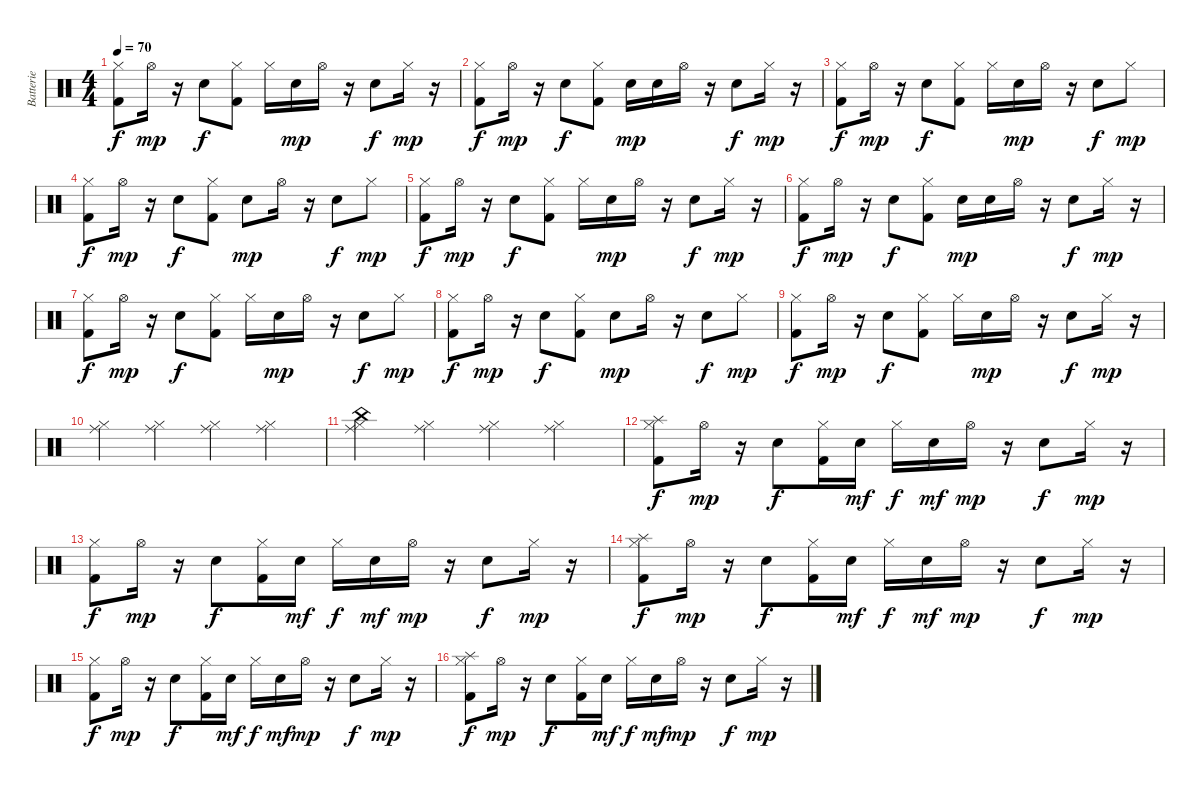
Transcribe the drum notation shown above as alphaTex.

\track ("Batterie" "Batterie") {instrument percussion}
\staff {score}
\articulation defaults
\ts (4 4)
\tempo 70
\clef neutral
\ks c
("Kick (hit) 2" "Hi-Hat (closed)").8{dy f} "Hi-Hat (open)".16{dy mp} r.16 "Electric Snare (hit)".8{dy f} ("Kick (hit) 2" "Hi-Hat (closed)").8 "Hi-Hat (closed)".16 "Electric Snare (hit)".16{dy mp} "Hi-Hat (open)".16 r.16 "Electric Snare (hit)".8{dy f} "Hi-Hat (closed)".16{dy mp} r.16 |
("Kick (hit) 2" "Hi-Hat (closed)").8{dy f} "Hi-Hat (open)".16{dy mp} r.16 "Electric Snare (hit)".8{dy f} ("Kick (hit) 2" "Hi-Hat (closed)").8 "Electric Snare (hit)".16{dy mp} "Electric Snare (hit)".16 "Hi-Hat (open)".16 r.16 "Electric Snare (hit)".8{dy f} "Hi-Hat (closed)".16{dy mp} r.16 |
("Kick (hit) 2" "Hi-Hat (closed)").8{dy f} "Hi-Hat (open)".16{dy mp} r.16 "Electric Snare (hit)".8{dy f} ("Kick (hit) 2" "Hi-Hat (closed)").8 "Hi-Hat (closed)".16 "Electric Snare (hit)".16{dy mp} "Hi-Hat (open)".16 r.16 "Electric Snare (hit)".8{dy f} "Hi-Hat (closed)".8{dy mp} |
("Kick (hit) 2" "Hi-Hat (closed)").8{dy f} "Hi-Hat (open)".16{dy mp} r.16 "Electric Snare (hit)".8{dy f} ("Kick (hit) 2" "Hi-Hat (closed)").8 "Electric Snare (hit)".8{dy mp} "Hi-Hat (open)".16 r.16 "Electric Snare (hit)".8{dy f} "Hi-Hat (closed)".8{dy mp} |
("Kick (hit) 2" "Hi-Hat (closed)").8{dy f} "Hi-Hat (open)".16{dy mp} r.16 "Electric Snare (hit)".8{dy f} ("Kick (hit) 2" "Hi-Hat (closed)").8 "Hi-Hat (closed)".16 "Electric Snare (hit)".16{dy mp} "Hi-Hat (open)".16 r.16 "Electric Snare (hit)".8{dy f} "Hi-Hat (closed)".16{dy mp} r.16 |
("Kick (hit) 2" "Hi-Hat (closed)").8{dy f} "Hi-Hat (open)".16{dy mp} r.16 "Electric Snare (hit)".8{dy f} ("Kick (hit) 2" "Hi-Hat (closed)").8 "Electric Snare (hit)".16{dy mp} "Electric Snare (hit)".16 "Hi-Hat (open)".16 r.16 "Electric Snare (hit)".8{dy f} "Hi-Hat (closed)".16{dy mp} r.16 |
("Kick (hit) 2" "Hi-Hat (closed)").8{dy f} "Hi-Hat (open)".16{dy mp} r.16 "Electric Snare (hit)".8{dy f} ("Kick (hit) 2" "Hi-Hat (closed)").8 "Hi-Hat (closed)".16 "Electric Snare (hit)".16{dy mp} "Hi-Hat (open)".16 r.16 "Electric Snare (hit)".8{dy f} "Hi-Hat (closed)".8{dy mp} |
("Kick (hit) 2" "Hi-Hat (closed)").8{dy f} "Hi-Hat (open)".16{dy mp} r.16 "Electric Snare (hit)".8{dy f} ("Kick (hit) 2" "Hi-Hat (closed)").8 "Electric Snare (hit)".8{dy mp} "Hi-Hat (open)".16 r.16 "Electric Snare (hit)".8{dy f} "Hi-Hat (closed)".8{dy mp} |
("Kick (hit) 2" "Hi-Hat (closed)").8{dy f} "Hi-Hat (open)".16{dy mp} r.16 "Electric Snare (hit)".8{dy f} ("Kick (hit) 2" "Hi-Hat (closed)").8 "Hi-Hat (closed)".16 "Electric Snare (hit)".16{dy mp} "Hi-Hat (open)".16 r.16 "Electric Snare (hit)".8{dy f} "Hi-Hat (closed)".16{dy mp} r.16 |
("Ride (middle)" "Hi-Hat (closed)").4 ("Ride (middle)" "Hi-Hat (closed)").4 ("Ride (middle)" "Hi-Hat (closed)").4 ("Ride (middle)" "Hi-Hat (closed)").4 |
("Ride (middle)" "Hi-Hat (closed)" "China (hit)").4 ("Ride (middle)" "Hi-Hat (closed)").4 ("Ride (middle)" "Hi-Hat (closed)").4 ("Ride (middle)" "Hi-Hat (closed)").4 |
("Kick (hit) 2" "Hi-Hat (closed)" "Splash (hit)").8{dy f} "Hi-Hat (open)".16{dy mp} r.16 "Electric Snare (hit)".8{dy f} ("Kick (hit) 2" "Hi-Hat (closed)").16 "Electric Snare (hit)".16{dy mf} "Hi-Hat (closed)".16{dy f} "Electric Snare (hit)".16{dy mf} "Hi-Hat (open)".16{dy mp} r.16 "Electric Snare (hit)".8{dy f} "Hi-Hat (closed)".16{dy mp} r.16 |
("Kick (hit) 2" "Hi-Hat (closed)").8{dy f} "Hi-Hat (open)".16{dy mp} r.16 "Electric Snare (hit)".8{dy f} ("Kick (hit) 2" "Hi-Hat (closed)").16 "Electric Snare (hit)".16{dy mf} "Hi-Hat (closed)".16{dy f} "Electric Snare (hit)".16{dy mf} "Hi-Hat (open)".16{dy mp} r.16 "Electric Snare (hit)".8{dy f} "Hi-Hat (closed)".16{dy mp} r.16 |
("Kick (hit) 2" "Hi-Hat (closed)" "Splash (hit)").8{dy f} "Hi-Hat (open)".16{dy mp} r.16 "Electric Snare (hit)".8{dy f} ("Kick (hit) 2" "Hi-Hat (closed)").16 "Electric Snare (hit)".16{dy mf} "Hi-Hat (closed)".16{dy f} "Electric Snare (hit)".16{dy mf} "Hi-Hat (open)".16{dy mp} r.16 "Electric Snare (hit)".8{dy f} "Hi-Hat (closed)".16{dy mp} r.16 |
("Kick (hit) 2" "Hi-Hat (closed)").8{dy f} "Hi-Hat (open)".16{dy mp} r.16 "Electric Snare (hit)".8{dy f} ("Kick (hit) 2" "Hi-Hat (closed)").16 "Electric Snare (hit)".16{dy mf} "Hi-Hat (closed)".16{dy f} "Electric Snare (hit)".16{dy mf} "Hi-Hat (open)".16{dy mp} r.16 "Electric Snare (hit)".8{dy f} "Hi-Hat (closed)".16{dy mp} r.16 |
("Kick (hit) 2" "Hi-Hat (closed)" "Splash (hit)").8{dy f} "Hi-Hat (open)".16{dy mp} r.16 "Electric Snare (hit)".8{dy f} ("Kick (hit) 2" "Hi-Hat (closed)").16 "Electric Snare (hit)".16{dy mf} "Hi-Hat (closed)".16{dy f} "Electric Snare (hit)".16{dy mf} "Hi-Hat (open)".16{dy mp} r.16 "Electric Snare (hit)".8{dy f} "Hi-Hat (closed)".16{dy mp} r.16
